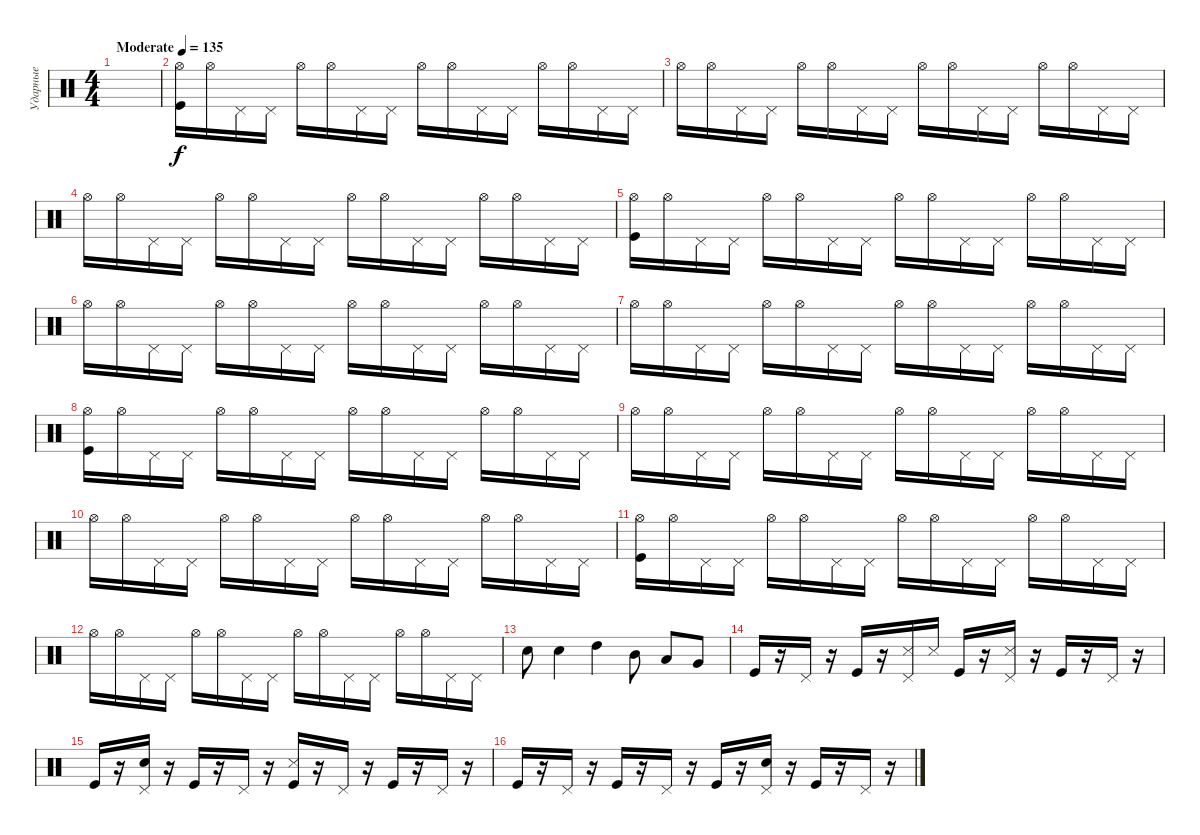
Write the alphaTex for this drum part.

\track ("Ударные" "Ударные") {instrument percussion}
\staff {score}
\articulation defaults
\ts (4 4)
\tempo (135 "Moderate")
\clef neutral
\ks c
|
("Hi-Hat (open)" "Kick (hit)").16 "Hi-Hat (open)".16 "Pedal Hi-Hat (hit)".16 "Pedal Hi-Hat (hit)".16 "Hi-Hat (open)".16 "Hi-Hat (open)".16 "Pedal Hi-Hat (hit)".16 "Pedal Hi-Hat (hit)".16 "Hi-Hat (open)".16 "Hi-Hat (open)".16 "Pedal Hi-Hat (hit)".16 "Pedal Hi-Hat (hit)".16 "Hi-Hat (open)".16 "Hi-Hat (open)".16 "Pedal Hi-Hat (hit)".16 "Pedal Hi-Hat (hit)".16 |
"Hi-Hat (open)".16 "Hi-Hat (open)".16 "Pedal Hi-Hat (hit)".16 "Pedal Hi-Hat (hit)".16 "Hi-Hat (open)".16 "Hi-Hat (open)".16 "Pedal Hi-Hat (hit)".16 "Pedal Hi-Hat (hit)".16 "Hi-Hat (open)".16 "Hi-Hat (open)".16 "Pedal Hi-Hat (hit)".16 "Pedal Hi-Hat (hit)".16 "Hi-Hat (open)".16 "Hi-Hat (open)".16 "Pedal Hi-Hat (hit)".16 "Pedal Hi-Hat (hit)".16 |
"Hi-Hat (open)".16 "Hi-Hat (open)".16 "Pedal Hi-Hat (hit)".16 "Pedal Hi-Hat (hit)".16 "Hi-Hat (open)".16 "Hi-Hat (open)".16 "Pedal Hi-Hat (hit)".16 "Pedal Hi-Hat (hit)".16 "Hi-Hat (open)".16 "Hi-Hat (open)".16 "Pedal Hi-Hat (hit)".16 "Pedal Hi-Hat (hit)".16 "Hi-Hat (open)".16 "Hi-Hat (open)".16 "Pedal Hi-Hat (hit)".16 "Pedal Hi-Hat (hit)".16 |
("Hi-Hat (open)" "Kick (hit)").16 "Hi-Hat (open)".16 "Pedal Hi-Hat (hit)".16 "Pedal Hi-Hat (hit)".16 "Hi-Hat (open)".16 "Hi-Hat (open)".16 "Pedal Hi-Hat (hit)".16 "Pedal Hi-Hat (hit)".16 "Hi-Hat (open)".16 "Hi-Hat (open)".16 "Pedal Hi-Hat (hit)".16 "Pedal Hi-Hat (hit)".16 "Hi-Hat (open)".16 "Hi-Hat (open)".16 "Pedal Hi-Hat (hit)".16 "Pedal Hi-Hat (hit)".16 |
"Hi-Hat (open)".16 "Hi-Hat (open)".16 "Pedal Hi-Hat (hit)".16 "Pedal Hi-Hat (hit)".16 "Hi-Hat (open)".16 "Hi-Hat (open)".16 "Pedal Hi-Hat (hit)".16 "Pedal Hi-Hat (hit)".16 "Hi-Hat (open)".16 "Hi-Hat (open)".16 "Pedal Hi-Hat (hit)".16 "Pedal Hi-Hat (hit)".16 "Hi-Hat (open)".16 "Hi-Hat (open)".16 "Pedal Hi-Hat (hit)".16 "Pedal Hi-Hat (hit)".16 |
"Hi-Hat (open)".16 "Hi-Hat (open)".16 "Pedal Hi-Hat (hit)".16 "Pedal Hi-Hat (hit)".16 "Hi-Hat (open)".16 "Hi-Hat (open)".16 "Pedal Hi-Hat (hit)".16 "Pedal Hi-Hat (hit)".16 "Hi-Hat (open)".16 "Hi-Hat (open)".16 "Pedal Hi-Hat (hit)".16 "Pedal Hi-Hat (hit)".16 "Hi-Hat (open)".16 "Hi-Hat (open)".16 "Pedal Hi-Hat (hit)".16 "Pedal Hi-Hat (hit)".16 |
("Hi-Hat (open)" "Kick (hit)").16 "Hi-Hat (open)".16 "Pedal Hi-Hat (hit)".16 "Pedal Hi-Hat (hit)".16 "Hi-Hat (open)".16 "Hi-Hat (open)".16 "Pedal Hi-Hat (hit)".16 "Pedal Hi-Hat (hit)".16 "Hi-Hat (open)".16 "Hi-Hat (open)".16 "Pedal Hi-Hat (hit)".16 "Pedal Hi-Hat (hit)".16 "Hi-Hat (open)".16 "Hi-Hat (open)".16 "Pedal Hi-Hat (hit)".16 "Pedal Hi-Hat (hit)".16 |
"Hi-Hat (open)".16 "Hi-Hat (open)".16 "Pedal Hi-Hat (hit)".16 "Pedal Hi-Hat (hit)".16 "Hi-Hat (open)".16 "Hi-Hat (open)".16 "Pedal Hi-Hat (hit)".16 "Pedal Hi-Hat (hit)".16 "Hi-Hat (open)".16 "Hi-Hat (open)".16 "Pedal Hi-Hat (hit)".16 "Pedal Hi-Hat (hit)".16 "Hi-Hat (open)".16 "Hi-Hat (open)".16 "Pedal Hi-Hat (hit)".16 "Pedal Hi-Hat (hit)".16 |
"Hi-Hat (open)".16 "Hi-Hat (open)".16 "Pedal Hi-Hat (hit)".16 "Pedal Hi-Hat (hit)".16 "Hi-Hat (open)".16 "Hi-Hat (open)".16 "Pedal Hi-Hat (hit)".16 "Pedal Hi-Hat (hit)".16 "Hi-Hat (open)".16 "Hi-Hat (open)".16 "Pedal Hi-Hat (hit)".16 "Pedal Hi-Hat (hit)".16 "Hi-Hat (open)".16 "Hi-Hat (open)".16 "Pedal Hi-Hat (hit)".16 "Pedal Hi-Hat (hit)".16 |
("Hi-Hat (open)" "Kick (hit)").16 "Hi-Hat (open)".16 "Pedal Hi-Hat (hit)".16 "Pedal Hi-Hat (hit)".16 "Hi-Hat (open)".16 "Hi-Hat (open)".16 "Pedal Hi-Hat (hit)".16 "Pedal Hi-Hat (hit)".16 "Hi-Hat (open)".16 "Hi-Hat (open)".16 "Pedal Hi-Hat (hit)".16 "Pedal Hi-Hat (hit)".16 "Hi-Hat (open)".16 "Hi-Hat (open)".16 "Pedal Hi-Hat (hit)".16 "Pedal Hi-Hat (hit)".16 |
"Hi-Hat (open)".16 "Hi-Hat (open)".16 "Pedal Hi-Hat (hit)".16 "Pedal Hi-Hat (hit)".16 "Hi-Hat (open)".16 "Hi-Hat (open)".16 "Pedal Hi-Hat (hit)".16 "Pedal Hi-Hat (hit)".16 "Hi-Hat (open)".16 "Hi-Hat (open)".16 "Pedal Hi-Hat (hit)".16 "Pedal Hi-Hat (hit)".16 "Hi-Hat (open)".16 "Hi-Hat (open)".16 "Pedal Hi-Hat (hit)".16 "Pedal Hi-Hat (hit)".16 |
"Electric Snare (hit)".8 "Electric Snare (hit)".4 "High Tom (hit)".4 "Mid Tom (hit)".8 "Low Tom (hit)".8 "Very Low Tom (hit)".8 |
"Kick (hit)".16 r.16 "Pedal Hi-Hat (hit)".16 r.16 "Kick (hit)".16 r.16 ("Snare (side stick) 3" "Pedal Hi-Hat (hit)").16 "Snare (side stick) 3".16 "Kick (hit)".16 r.16 ("Snare (side stick) 3" "Pedal Hi-Hat (hit)").16 r.16 "Kick (hit)".16 r.16 "Pedal Hi-Hat (hit)".16 r.16 |
"Kick (hit)".16 r.16 ("Snare (hit) 2" "Pedal Hi-Hat (hit)").16 r.16 "Kick (hit)".16 r.16 "Pedal Hi-Hat (hit)".16 r.16 ("Snare (side stick) 3" "Kick (hit)").16 r.16 "Pedal Hi-Hat (hit)".16 r.16 "Kick (hit)".16 r.16 "Pedal Hi-Hat (hit)".16 r.16 |
"Kick (hit)".16 r.16 "Pedal Hi-Hat (hit)".16 r.16 "Kick (hit)".16 r.16 "Pedal Hi-Hat (hit)".16 r.16 "Kick (hit)".16 r.16 ("Snare (hit) 2" "Pedal Hi-Hat (hit)").16 r.16 "Kick (hit)".16 r.16 "Pedal Hi-Hat (hit)".16 r.16
